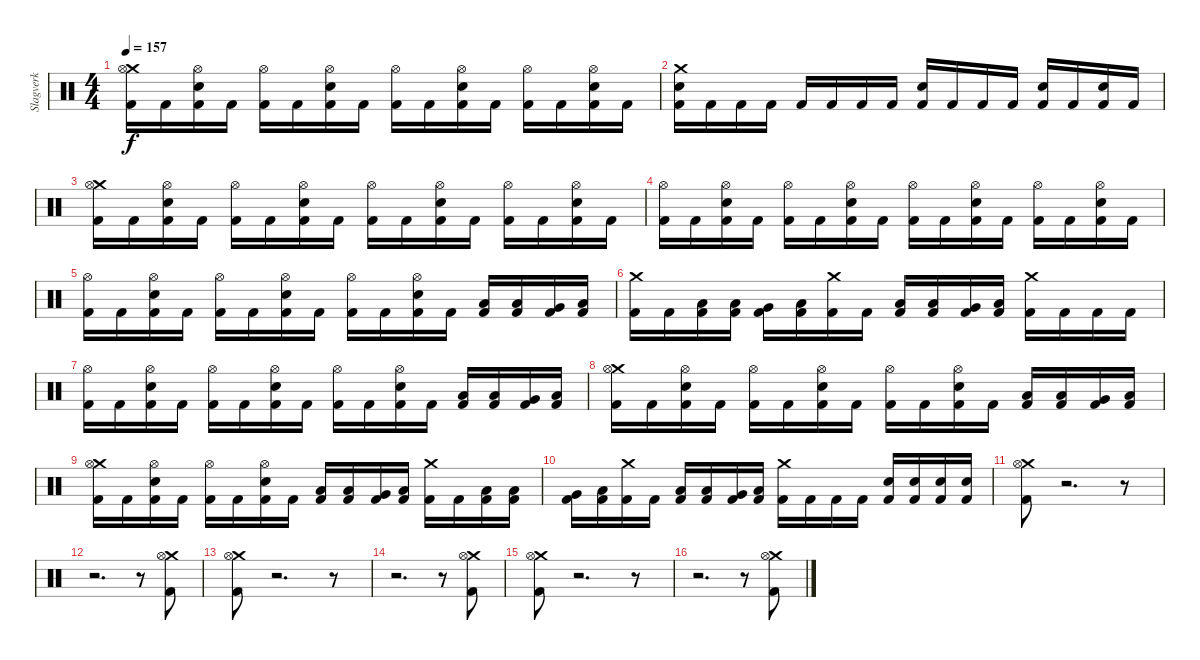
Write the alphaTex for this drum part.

\track ("Slagverk" "Slagverk") {instrument percussion}
\staff {score}
\articulation defaults
\ts (4 4)
\tempo 157
\clef neutral
\ks c
("Crash medium (hit)" "Hi-Hat (open)" "Kick (hit) 2").16{dy f} "Kick (hit) 2".16 ("Snare (hit) 2" "Hi-Hat (open)" "Kick (hit) 2").16 "Kick (hit) 2".16 ("Hi-Hat (open)" "Kick (hit) 2").16 "Kick (hit) 2".16 ("Snare (hit) 2" "Hi-Hat (open)" "Kick (hit) 2").16 "Kick (hit) 2".16 ("Hi-Hat (open)" "Kick (hit) 2").16 "Kick (hit) 2".16 ("Snare (hit) 2" "Hi-Hat (open)" "Kick (hit) 2").16 "Kick (hit) 2".16 ("Hi-Hat (open)" "Kick (hit) 2").16 "Kick (hit) 2".16 ("Snare (hit) 2" "Hi-Hat (open)" "Kick (hit) 2").16 "Kick (hit) 2".16 |
("Crash medium (hit)" "Snare (hit) 2" "Kick (hit) 2").16 "Kick (hit) 2".16 "Kick (hit) 2".16 "Kick (hit) 2".16 "Kick (hit) 2".16 "Kick (hit) 2".16 "Kick (hit) 2".16 "Kick (hit) 2".16 ("Snare (hit) 2" "Kick (hit) 2").16 "Kick (hit) 2".16 "Kick (hit) 2".16 "Kick (hit) 2".16 ("Kick (hit) 2" "Snare (hit) 2").16 "Kick (hit) 2".16 ("Snare (hit) 2" "Kick (hit) 2").16 "Kick (hit) 2".16 |
("Crash medium (hit)" "Hi-Hat (open)" "Kick (hit) 2").16 "Kick (hit) 2".16 ("Snare (hit) 2" "Hi-Hat (open)" "Kick (hit) 2").16 "Kick (hit) 2".16 ("Hi-Hat (open)" "Kick (hit) 2").16 "Kick (hit) 2".16 ("Snare (hit) 2" "Hi-Hat (open)" "Kick (hit) 2").16 "Kick (hit) 2".16 ("Hi-Hat (open)" "Kick (hit) 2").16 "Kick (hit) 2".16 ("Snare (hit) 2" "Hi-Hat (open)" "Kick (hit) 2").16 "Kick (hit) 2".16 ("Hi-Hat (open)" "Kick (hit) 2").16 "Kick (hit) 2".16 ("Snare (hit) 2" "Hi-Hat (open)" "Kick (hit) 2").16 "Kick (hit) 2".16 |
("Hi-Hat (open)" "Kick (hit) 2").16 "Kick (hit) 2".16 ("Snare (hit) 2" "Hi-Hat (open)" "Kick (hit) 2").16 "Kick (hit) 2".16 ("Hi-Hat (open)" "Kick (hit) 2").16 "Kick (hit) 2".16 ("Snare (hit) 2" "Hi-Hat (open)" "Kick (hit) 2").16 "Kick (hit) 2".16 ("Hi-Hat (open)" "Kick (hit) 2").16 "Kick (hit) 2".16 ("Snare (hit) 2" "Hi-Hat (open)" "Kick (hit) 2").16 "Kick (hit) 2".16 ("Hi-Hat (open)" "Kick (hit) 2").16 "Kick (hit) 2".16 ("Snare (hit) 2" "Hi-Hat (open)" "Kick (hit) 2").16 "Kick (hit) 2".16 |
("Hi-Hat (open)" "Kick (hit) 2").16 "Kick (hit) 2".16 ("Snare (hit) 2" "Hi-Hat (open)" "Kick (hit) 2").16 "Kick (hit) 2".16 ("Hi-Hat (open)" "Kick (hit) 2").16 "Kick (hit) 2".16 ("Snare (hit) 2" "Hi-Hat (open)" "Kick (hit) 2").16 "Kick (hit) 2".16 ("Hi-Hat (open)" "Kick (hit) 2").16 "Kick (hit) 2".16 ("Snare (hit) 2" "Hi-Hat (open)" "Kick (hit) 2").16 "Kick (hit) 2".16 ("Low Tom (hit)" "Kick (hit) 2").16 ("Low Tom (hit)" "Kick (hit) 2").16 ("Very Low Tom (hit)" "Kick (hit) 2").16 ("Low Floor Tom (hit)" "Kick (hit) 2").16 |
("Crash medium (hit)" "Kick (hit) 2").16 "Kick (hit) 2".16 ("Low Tom (hit)" "Kick (hit) 2").16 ("Low Tom (hit)" "Kick (hit) 2").16 ("Very Low Tom (hit)" "Kick (hit) 2").16 ("Low Floor Tom (hit)" "Kick (hit) 2").16 ("Crash medium (hit)" "Kick (hit) 2").16 "Kick (hit) 2".16 ("Low Tom (hit)" "Kick (hit) 2").16 ("Low Tom (hit)" "Kick (hit) 2").16 ("Very Low Tom (hit)" "Kick (hit) 2").16 ("Low Floor Tom (hit)" "Kick (hit) 2").16 ("Crash medium (hit)" "Kick (hit) 2").16 "Kick (hit) 2".16 "Kick (hit) 2".16 "Kick (hit) 2".16 |
("Hi-Hat (open)" "Kick (hit) 2").16 "Kick (hit) 2".16 ("Snare (hit) 2" "Hi-Hat (open)" "Kick (hit) 2").16 "Kick (hit) 2".16 ("Hi-Hat (open)" "Kick (hit) 2").16 "Kick (hit) 2".16 ("Snare (hit) 2" "Hi-Hat (open)" "Kick (hit) 2").16 "Kick (hit) 2".16 ("Hi-Hat (open)" "Kick (hit) 2").16 "Kick (hit) 2".16 ("Snare (hit) 2" "Hi-Hat (open)" "Kick (hit) 2").16 "Kick (hit) 2".16 ("Low Tom (hit)" "Kick (hit) 2").16 ("Low Tom (hit)" "Kick (hit) 2").16 ("Very Low Tom (hit)" "Kick (hit) 2").16 ("Low Floor Tom (hit)" "Kick (hit) 2").16 |
("Crash medium (hit)" "Hi-Hat (open)" "Kick (hit) 2").16 "Kick (hit) 2".16 ("Snare (hit) 2" "Hi-Hat (open)" "Kick (hit) 2").16 "Kick (hit) 2".16 ("Hi-Hat (open)" "Kick (hit) 2").16 "Kick (hit) 2".16 ("Snare (hit) 2" "Hi-Hat (open)" "Kick (hit) 2").16 "Kick (hit) 2".16 ("Hi-Hat (open)" "Kick (hit) 2").16 "Kick (hit) 2".16 ("Snare (hit) 2" "Hi-Hat (open)" "Kick (hit) 2").16 "Kick (hit) 2".16 ("Low Tom (hit)" "Kick (hit) 2").16 ("Low Tom (hit)" "Kick (hit) 2").16 ("Very Low Tom (hit)" "Kick (hit) 2").16 ("Low Floor Tom (hit)" "Kick (hit) 2").16 |
("Crash medium (hit)" "Hi-Hat (open)" "Kick (hit) 2").16 "Kick (hit) 2".16 ("Snare (hit) 2" "Hi-Hat (open)" "Kick (hit) 2").16 "Kick (hit) 2".16 ("Hi-Hat (open)" "Kick (hit) 2").16 "Kick (hit) 2".16 ("Snare (hit) 2" "Hi-Hat (open)" "Kick (hit) 2").16 "Kick (hit) 2".16 ("Low Tom (hit)" "Kick (hit) 2").16 ("Low Tom (hit)" "Kick (hit) 2").16 ("Very Low Tom (hit)" "Kick (hit) 2").16 ("Low Floor Tom (hit)" "Kick (hit) 2").16 ("Crash medium (hit)" "Kick (hit) 2").16 "Kick (hit) 2".16 ("Low Tom (hit)" "Kick (hit) 2").16 ("Low Tom (hit)" "Kick (hit) 2").16 |
("Very Low Tom (hit)" "Kick (hit) 2").16 ("Low Floor Tom (hit)" "Kick (hit) 2").16 ("Crash medium (hit)" "Kick (hit) 2").16 "Kick (hit) 2".16 ("Low Tom (hit)" "Kick (hit) 2").16 ("Low Tom (hit)" "Kick (hit) 2").16 ("Very Low Tom (hit)" "Kick (hit) 2").16 ("Low Floor Tom (hit)" "Kick (hit) 2").16 ("Crash medium (hit)" "Kick (hit) 2").16 "Kick (hit) 2".16 "Kick (hit) 2".16 "Kick (hit) 2".16 ("Snare (hit) 2" "Kick (hit) 2").16 ("Snare (hit) 2" "Kick (hit) 2").16 ("Snare (hit) 2" "Kick (hit) 2").16 ("Snare (hit) 2" "Kick (hit) 2").16 |
("Crash medium (hit)" "Hi-Hat (open)" "Kick (hit) 2").8 r.2{d} r.8 |
r.2{d} r.8 ("Crash medium (hit)" "Hi-Hat (open)" "Kick (hit) 2").8 |
("Crash medium (hit)" "Hi-Hat (open)" "Kick (hit) 2").8 r.2{d} r.8 |
r.2{d} r.8 ("Crash medium (hit)" "Hi-Hat (open)" "Kick (hit) 2").8 |
("Crash medium (hit)" "Hi-Hat (open)" "Kick (hit) 2").8 r.2{d} r.8 |
r.2{d} r.8 ("Crash medium (hit)" "Hi-Hat (open)" "Kick (hit) 2").8
